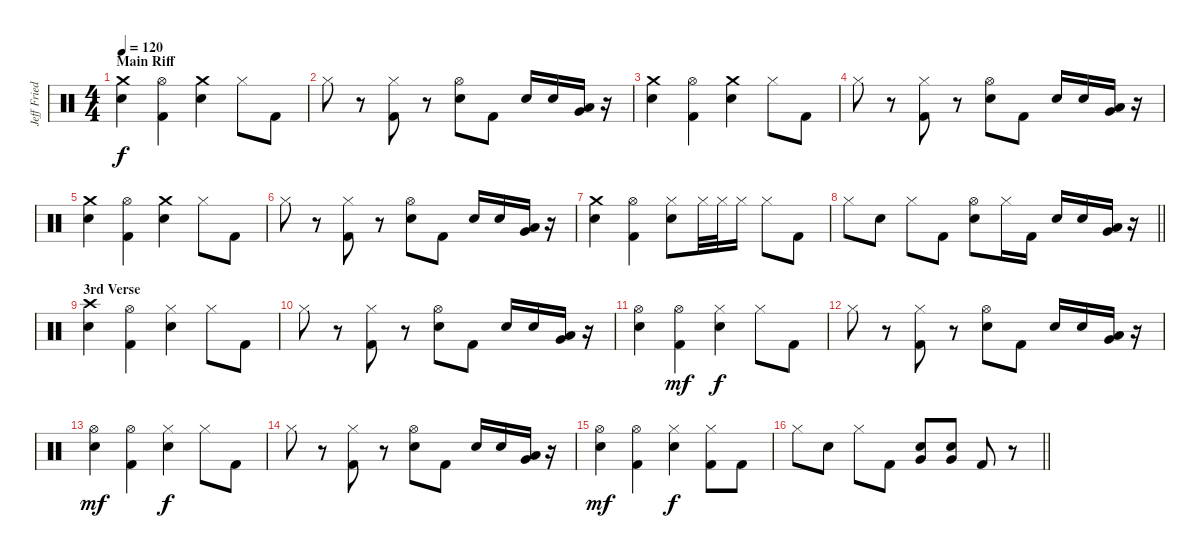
\track ("Jeff Friedl" "Jeff Fried") {instrument percussion}
\staff {score}
\articulation defaults
\ts (4 4)
\section ("" "Main Riff")
\tempo 120
\clef neutral
\ks c
("Crash medium (hit)" "Snare (hit) 2").4{dy f} ("Hi-Hat (open)" "Kick (hit) 2").4 ("Crash medium (hit)" "Snare (hit) 2").4 "Hi-Hat (closed)".8 "Kick (hit) 2".8 |
"Hi-Hat (closed)".8 r.8 ("Hi-Hat (closed)" "Kick (hit) 2").8 r.8 ("Hi-Hat (open)" "Snare (hit) 2").8 "Kick (hit) 2".8 "Snare (hit) 2".16 "Snare (hit) 2".16 ("Low Tom (hit)" "Very Low Tom (hit)").16 r.16 |
("Crash medium (hit)" "Snare (hit) 2").4 ("Hi-Hat (open)" "Kick (hit) 2").4 ("Crash medium (hit)" "Snare (hit) 2").4 "Hi-Hat (closed)".8 "Kick (hit) 2".8 |
"Hi-Hat (closed)".8 r.8 ("Hi-Hat (closed)" "Kick (hit) 2").8 r.8 ("Hi-Hat (open)" "Snare (hit) 2").8 "Kick (hit) 2".8 "Snare (hit) 2".16 "Snare (hit) 2".16 ("Low Tom (hit)" "Very Low Tom (hit)").16 r.16 |
("Crash medium (hit)" "Snare (hit) 2").4 ("Hi-Hat (open)" "Kick (hit) 2").4 ("Crash medium (hit)" "Snare (hit) 2").4 "Hi-Hat (closed)".8 "Kick (hit) 2".8 |
"Hi-Hat (closed)".8 r.8 ("Hi-Hat (closed)" "Kick (hit) 2").8 r.8 ("Hi-Hat (open)" "Snare (hit) 2").8 "Kick (hit) 2".8 "Snare (hit) 2".16 "Snare (hit) 2".16 ("Low Tom (hit)" "Very Low Tom (hit)").16 r.16 |
("Crash medium (hit)" "Snare (hit) 2").4 ("Hi-Hat (open)" "Kick (hit) 2").4 ("Hi-Hat (closed)" "Snare (hit) 2").8 "Hi-Hat (closed)".32 "Hi-Hat (closed)".32 "Hi-Hat (closed)".16 "Hi-Hat (closed)".8 "Kick (hit) 2".8 |
\barLineRight lightlight "Hi-Hat (closed)".8 "Snare (hit) 2".8 "Hi-Hat (closed)".8 "Kick (hit) 2".8
("Hi-Hat (open)" "Snare (hit) 2").8 "Hi-Hat (closed)".16 "Kick (hit) 2".16 "Snare (hit) 2".16 "Snare (hit) 2".16 ("Low Tom (hit)" "Very Low Tom (hit)").16 r.16 |
\section ("" "3rd Verse")
("Crash high (hit)" "Snare (hit) 2").4 ("Hi-Hat (open)" "Kick (hit) 2").4 ("Hi-Hat (closed)" "Snare (hit) 2").4 "Hi-Hat (closed)".8 "Kick (hit) 2".8 |
"Hi-Hat (closed)".8 r.8 ("Hi-Hat (closed)" "Kick (hit) 2").8 r.8 ("Hi-Hat (open)" "Snare (hit) 2").8 "Kick (hit) 2".8 "Snare (hit) 2".16 "Snare (hit) 2".16 ("Low Tom (hit)" "Very Low Tom (hit)").16 r.16 |
("Hi-Hat (open)" "Snare (hit) 2").4 ("Hi-Hat (open)" "Kick (hit) 2").4{dy mf} ("Hi-Hat (closed)" "Snare (hit) 2").4{dy f} "Hi-Hat (closed)".8 "Kick (hit) 2".8 |
"Hi-Hat (closed)".8 r.8 ("Hi-Hat (closed)" "Kick (hit) 2").8 r.8 ("Hi-Hat (open)" "Snare (hit) 2").8 "Kick (hit) 2".8 "Snare (hit) 2".16 "Snare (hit) 2".16 ("Low Tom (hit)" "Very Low Tom (hit)").16 r.16 |
("Hi-Hat (open)" "Snare (hit) 2").4{dy mf} ("Hi-Hat (open)" "Kick (hit) 2").4 ("Hi-Hat (closed)" "Snare (hit) 2").4{dy f} "Hi-Hat (closed)".8 "Kick (hit) 2".8 |
"Hi-Hat (closed)".8 r.8 ("Hi-Hat (closed)" "Kick (hit) 2").8 r.8 ("Hi-Hat (open)" "Snare (hit) 2").8 "Kick (hit) 2".8 "Snare (hit) 2".16 "Snare (hit) 2".16 ("Low Tom (hit)" "Very Low Tom (hit)").16 r.16 |
("Hi-Hat (open)" "Snare (hit) 2").4{dy mf} ("Hi-Hat (open)" "Kick (hit) 2").4 ("Hi-Hat (closed)" "Snare (hit) 2").4{dy f} ("Hi-Hat (closed)" "Kick (hit) 2").8 "Kick (hit) 2".8 |
\barLineRight lightlight "Hi-Hat (closed)".8 "Snare (hit) 2".8 "Hi-Hat (closed)".8 "Kick (hit) 2".8
("Very Low Tom (hit)" "Snare (hit) 2").8 ("Very Low Tom (hit)" "Snare (hit) 2").8 "Kick (hit) 2".8 r.8
